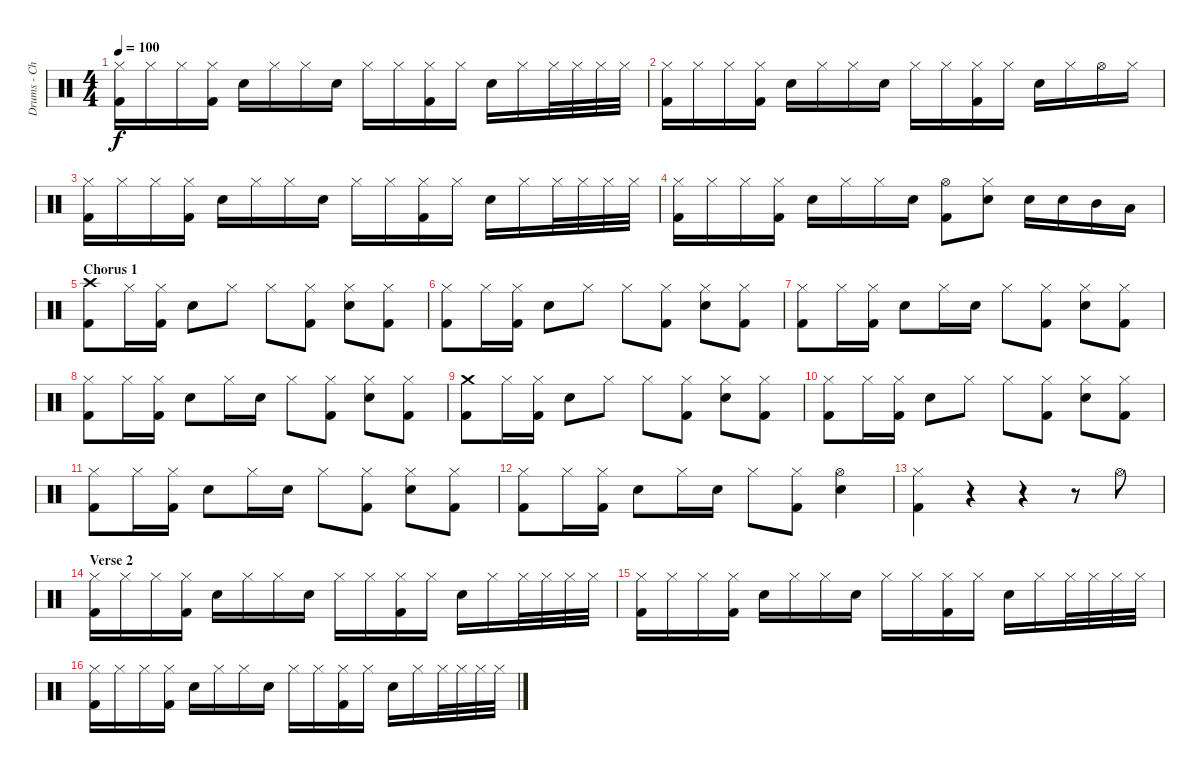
\track ("Drums - Chad" "Drums - Ch") {instrument percussion}
\staff {score}
\articulation defaults
\ts (4 4)
\tempo 100
\clef neutral
\ks c
("Hi-Hat (closed)" "Kick (hit) 2").16{dy f} "Hi-Hat (closed)".16 "Hi-Hat (closed)".16 ("Hi-Hat (closed)" "Kick (hit) 2").16 "Electric Snare (hit)".16 "Hi-Hat (closed)".16 "Hi-Hat (closed)".16 "Electric Snare (hit)".16 "Hi-Hat (closed)".16 "Hi-Hat (closed)".16 ("Hi-Hat (closed)" "Kick (hit) 2").16 "Hi-Hat (closed)".16 "Electric Snare (hit)".16 "Hi-Hat (closed)".16 "Hi-Hat (closed)".32 "Hi-Hat (closed)".32 "Hi-Hat (closed)".32 "Hi-Hat (closed)".32 |
("Hi-Hat (closed)" "Kick (hit) 2").16 "Hi-Hat (closed)".16 "Hi-Hat (closed)".16 ("Hi-Hat (closed)" "Kick (hit) 2").16 "Electric Snare (hit)".16 "Hi-Hat (closed)".16 "Hi-Hat (closed)".16 "Electric Snare (hit)".16 "Hi-Hat (closed)".16 "Hi-Hat (closed)".16 ("Hi-Hat (closed)" "Kick (hit) 2").16 "Hi-Hat (closed)".16 "Electric Snare (hit)".16 "Hi-Hat (closed)".16 "Hi-Hat (open)".16 "Hi-Hat (closed)".16 |
("Hi-Hat (closed)" "Kick (hit) 2").16 "Hi-Hat (closed)".16 "Hi-Hat (closed)".16 ("Hi-Hat (closed)" "Kick (hit) 2").16 "Electric Snare (hit)".16 "Hi-Hat (closed)".16 "Hi-Hat (closed)".16 "Electric Snare (hit)".16 "Hi-Hat (closed)".16 "Hi-Hat (closed)".16 ("Hi-Hat (closed)" "Kick (hit) 2").16 "Hi-Hat (closed)".16 "Electric Snare (hit)".16 "Hi-Hat (closed)".16 "Hi-Hat (closed)".32 "Hi-Hat (closed)".32 "Hi-Hat (closed)".32 "Hi-Hat (closed)".32 |
("Hi-Hat (closed)" "Kick (hit) 2").16 "Hi-Hat (closed)".16 "Hi-Hat (closed)".16 ("Hi-Hat (closed)" "Kick (hit) 2").16 "Electric Snare (hit)".16 "Hi-Hat (closed)".16 "Hi-Hat (closed)".16 "Electric Snare (hit)".16 ("Hi-Hat (open)" "Kick (hit) 2").8 ("Hi-Hat (closed)" "Electric Snare (hit)").8 "Electric Snare (hit)".16 "Electric Snare (hit)".16 "Mid Tom (hit)".16 "Low Tom (hit)".16 |
\section ("" "Chorus 1")
("Crash high (hit)" "Kick (hit) 2").8 "Hi-Hat (closed)".16 ("Hi-Hat (closed)" "Kick (hit) 2").16 "Electric Snare (hit)".8 "Hi-Hat (closed)".8 "Hi-Hat (closed)".8 ("Hi-Hat (closed)" "Kick (hit) 2").8 ("Hi-Hat (closed)" "Electric Snare (hit)").8 ("Hi-Hat (closed)" "Kick (hit) 2").8 |
("Hi-Hat (closed)" "Kick (hit) 2").8 "Hi-Hat (closed)".16 ("Hi-Hat (closed)" "Kick (hit) 2").16 "Electric Snare (hit)".8 "Hi-Hat (closed)".8 "Hi-Hat (closed)".8 ("Hi-Hat (closed)" "Kick (hit) 2").8 ("Hi-Hat (closed)" "Electric Snare (hit)").8 ("Hi-Hat (closed)" "Kick (hit) 2").8 |
("Hi-Hat (closed)" "Kick (hit) 2").8 "Hi-Hat (closed)".16 ("Hi-Hat (closed)" "Kick (hit) 2").16 "Electric Snare (hit)".8 "Hi-Hat (closed)".16 "Electric Snare (hit)".16 "Hi-Hat (closed)".8 ("Hi-Hat (closed)" "Kick (hit) 2").8 ("Hi-Hat (closed)" "Electric Snare (hit)").8 ("Hi-Hat (closed)" "Kick (hit) 2").8 |
("Hi-Hat (closed)" "Kick (hit) 2").8 "Hi-Hat (closed)".16 ("Hi-Hat (closed)" "Kick (hit) 2").16 "Electric Snare (hit)".8 "Hi-Hat (closed)".16 "Electric Snare (hit)".16 "Hi-Hat (closed)".8 ("Hi-Hat (closed)" "Kick (hit) 2").8 ("Hi-Hat (closed)" "Electric Snare (hit)").8 ("Hi-Hat (closed)" "Kick (hit) 2").8 |
("Crash medium (hit)" "Kick (hit) 2").8 "Hi-Hat (closed)".16 ("Hi-Hat (closed)" "Kick (hit) 2").16 "Electric Snare (hit)".8 "Hi-Hat (closed)".8 "Hi-Hat (closed)".8 ("Hi-Hat (closed)" "Kick (hit) 2").8 ("Hi-Hat (closed)" "Electric Snare (hit)").8 ("Hi-Hat (closed)" "Kick (hit) 2").8 |
("Hi-Hat (closed)" "Kick (hit) 2").8 "Hi-Hat (closed)".16 ("Hi-Hat (closed)" "Kick (hit) 2").16 "Electric Snare (hit)".8 "Hi-Hat (closed)".8 "Hi-Hat (closed)".8 ("Hi-Hat (closed)" "Kick (hit) 2").8 ("Hi-Hat (closed)" "Electric Snare (hit)").8 ("Hi-Hat (closed)" "Kick (hit) 2").8 |
("Hi-Hat (closed)" "Kick (hit) 2").8 "Hi-Hat (closed)".16 ("Hi-Hat (closed)" "Kick (hit) 2").16 "Electric Snare (hit)".8 "Hi-Hat (closed)".16 "Electric Snare (hit)".16 "Hi-Hat (closed)".8 ("Hi-Hat (closed)" "Kick (hit) 2").8 ("Hi-Hat (closed)" "Electric Snare (hit)").8 ("Hi-Hat (closed)" "Kick (hit) 2").8 |
("Hi-Hat (closed)" "Kick (hit) 2").8 "Hi-Hat (closed)".16 ("Hi-Hat (closed)" "Kick (hit) 2").16 "Electric Snare (hit)".8 "Hi-Hat (closed)".16 "Electric Snare (hit)".16 "Hi-Hat (closed)".8 ("Hi-Hat (closed)" "Kick (hit) 2").8 ("Hi-Hat (open)" "Electric Snare (hit)").4 |
("Hi-Hat (closed)" "Kick (hit) 2").4 r.4 r.4 r.8 "Hi-Hat (open)".8 |
\section ("" "Verse 2")
("Hi-Hat (closed)" "Kick (hit) 2").16 "Hi-Hat (closed)".16 "Hi-Hat (closed)".16 ("Hi-Hat (closed)" "Kick (hit) 2").16 "Electric Snare (hit)".16 "Hi-Hat (closed)".16 "Hi-Hat (closed)".16 "Electric Snare (hit)".16 "Hi-Hat (closed)".16 "Hi-Hat (closed)".16 ("Hi-Hat (closed)" "Kick (hit) 2").16 "Hi-Hat (closed)".16 "Electric Snare (hit)".16 "Hi-Hat (closed)".16 "Hi-Hat (closed)".32 "Hi-Hat (closed)".32 "Hi-Hat (closed)".32 "Hi-Hat (closed)".32 |
("Hi-Hat (closed)" "Kick (hit) 2").16 "Hi-Hat (closed)".16 "Hi-Hat (closed)".16 ("Hi-Hat (closed)" "Kick (hit) 2").16 "Electric Snare (hit)".16 "Hi-Hat (closed)".16 "Hi-Hat (closed)".16 "Electric Snare (hit)".16 "Hi-Hat (closed)".16 "Hi-Hat (closed)".16 ("Hi-Hat (closed)" "Kick (hit) 2").16 "Hi-Hat (closed)".16 "Electric Snare (hit)".16 "Hi-Hat (closed)".16 "Hi-Hat (closed)".32 "Hi-Hat (closed)".32 "Hi-Hat (closed)".32 "Hi-Hat (closed)".32 |
("Hi-Hat (closed)" "Kick (hit) 2").16 "Hi-Hat (closed)".16 "Hi-Hat (closed)".16 ("Hi-Hat (closed)" "Kick (hit) 2").16 "Electric Snare (hit)".16 "Hi-Hat (closed)".16 "Hi-Hat (closed)".16 "Electric Snare (hit)".16 "Hi-Hat (closed)".16 "Hi-Hat (closed)".16 ("Hi-Hat (closed)" "Kick (hit) 2").16 "Hi-Hat (closed)".16 "Electric Snare (hit)".16 "Hi-Hat (closed)".16 "Hi-Hat (closed)".32 "Hi-Hat (closed)".32 "Hi-Hat (closed)".32 "Hi-Hat (closed)".32
